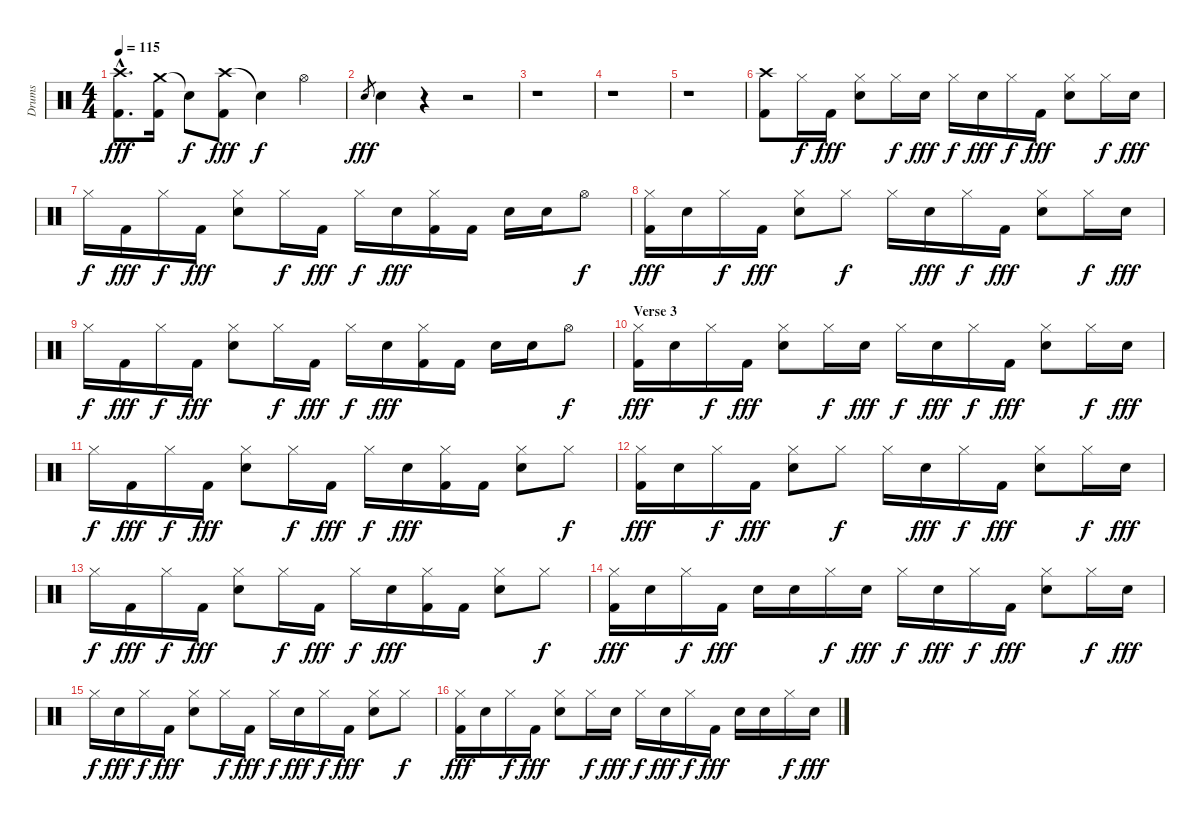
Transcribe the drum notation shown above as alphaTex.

\track ("Drums" "Drums") {instrument percussion}
\staff {score}
\articulation defaults
\ts (4 4)
\tempo 115
\clef neutral
\ks c
("Crash high (hit)"{hac} "Kick (hit) 2"{hac}).8{d dy fff} ("Crash medium (hit)" "Kick (hit) 2").16 "Snare (hit)"{t}.8{dy f} ("Crash high (hit)" "Kick (hit) 2").8{dy fff} "Snare (hit)"{t}.4{dy f} "Hi-Hat (open)".4 |
"Electric Snare (hit)".8{gr dy fff} "Electric Snare (hit)".4 r.4 r.2 |
r.1 |
r.1 |
r.1 |
("Crash high (hit)" "Kick (hit) 2").8 "Hi-Hat (closed)".16{dy f} "Kick (hit) 2".16{dy fff} ("Hi-Hat (closed)" "Electric Snare (hit)").8 "Hi-Hat (closed)".16{dy f} "Electric Snare (hit)".16{dy fff} "Hi-Hat (closed)".16{dy f} "Electric Snare (hit)".16{dy fff} "Hi-Hat (closed)".16{dy f} "Kick (hit) 2".16{dy fff} ("Hi-Hat (closed)" "Electric Snare (hit)").8 "Hi-Hat (closed)".16{dy f} "Electric Snare (hit)".16{dy fff} |
"Hi-Hat (closed)".16{dy f} "Kick (hit) 2".16{dy fff} "Hi-Hat (closed)".16{dy f} "Kick (hit) 2".16{dy fff} ("Hi-Hat (closed)" "Electric Snare (hit)").8 "Hi-Hat (closed)".16{dy f} "Kick (hit) 2".16{dy fff} "Hi-Hat (closed)".16{dy f} "Electric Snare (hit)".16{dy fff} ("Hi-Hat (closed)" "Kick (hit) 2").16 "Kick (hit) 2".16 "Electric Snare (hit)".16 "Electric Snare (hit)".16 "Hi-Hat (open)".8{dy f} |
("Hi-Hat (closed)" "Kick (hit) 2").16{dy fff} "Electric Snare (hit)".16 "Hi-Hat (closed)".16{dy f} "Kick (hit) 2".16{dy fff} ("Hi-Hat (closed)" "Electric Snare (hit)").8 "Hi-Hat (closed)".8{dy f} "Hi-Hat (closed)".16 "Electric Snare (hit)".16{dy fff} "Hi-Hat (closed)".16{dy f} "Kick (hit) 2".16{dy fff} ("Hi-Hat (closed)" "Electric Snare (hit)").8 "Hi-Hat (closed)".16{dy f} "Electric Snare (hit)".16{dy fff} |
"Hi-Hat (closed)".16{dy f} "Kick (hit) 2".16{dy fff} "Hi-Hat (closed)".16{dy f} "Kick (hit) 2".16{dy fff} ("Hi-Hat (closed)" "Electric Snare (hit)").8 "Hi-Hat (closed)".16{dy f} "Kick (hit) 2".16{dy fff} "Hi-Hat (closed)".16{dy f} "Electric Snare (hit)".16{dy fff} ("Hi-Hat (closed)" "Kick (hit) 2").16 "Kick (hit) 2".16 "Electric Snare (hit)".16 "Electric Snare (hit)".16 "Hi-Hat (open)".8{dy f} |
\section ("" "Verse 3")
("Hi-Hat (closed)" "Kick (hit) 2").16{dy fff} "Electric Snare (hit)".16 "Hi-Hat (closed)".16{dy f} "Kick (hit) 2".16{dy fff} ("Hi-Hat (closed)" "Electric Snare (hit)").8 "Hi-Hat (closed)".16{dy f} "Electric Snare (hit)".16{dy fff} "Hi-Hat (closed)".16{dy f} "Electric Snare (hit)".16{dy fff} "Hi-Hat (closed)".16{dy f} "Kick (hit) 2".16{dy fff} ("Hi-Hat (closed)" "Electric Snare (hit)").8 "Hi-Hat (closed)".16{dy f} "Electric Snare (hit)".16{dy fff} |
"Hi-Hat (closed)".16{dy f} "Kick (hit) 2".16{dy fff} "Hi-Hat (closed)".16{dy f} "Kick (hit) 2".16{dy fff} ("Hi-Hat (closed)" "Electric Snare (hit)").8 "Hi-Hat (closed)".16{dy f} "Kick (hit) 2".16{dy fff} "Hi-Hat (closed)".16{dy f} "Electric Snare (hit)".16{dy fff} ("Hi-Hat (closed)" "Kick (hit) 2").16 "Kick (hit) 2".16 ("Hi-Hat (closed)" "Electric Snare (hit)").8 "Hi-Hat (closed)".8{dy f} |
("Hi-Hat (closed)" "Kick (hit) 2").16{dy fff} "Electric Snare (hit)".16 "Hi-Hat (closed)".16{dy f} "Kick (hit) 2".16{dy fff} ("Hi-Hat (closed)" "Electric Snare (hit)").8 "Hi-Hat (closed)".8{dy f} "Hi-Hat (closed)".16 "Electric Snare (hit)".16{dy fff} "Hi-Hat (closed)".16{dy f} "Kick (hit) 2".16{dy fff} ("Hi-Hat (closed)" "Electric Snare (hit)").8 "Hi-Hat (closed)".16{dy f} "Electric Snare (hit)".16{dy fff} |
"Hi-Hat (closed)".16{dy f} "Kick (hit) 2".16{dy fff} "Hi-Hat (closed)".16{dy f} "Kick (hit) 2".16{dy fff} ("Hi-Hat (closed)" "Electric Snare (hit)").8 "Hi-Hat (closed)".16{dy f} "Kick (hit) 2".16{dy fff} "Hi-Hat (closed)".16{dy f} "Electric Snare (hit)".16{dy fff} ("Hi-Hat (closed)" "Kick (hit) 2").16 "Kick (hit) 2".16 ("Hi-Hat (closed)" "Electric Snare (hit)").8 "Hi-Hat (closed)".8{dy f} |
("Hi-Hat (closed)" "Kick (hit) 2").16{dy fff} "Electric Snare (hit)".16 "Hi-Hat (closed)".16{dy f} "Kick (hit) 2".16{dy fff} "Electric Snare (hit)".16 "Electric Snare (hit)".16 "Hi-Hat (closed)".16{dy f} "Electric Snare (hit)".16{dy fff} "Hi-Hat (closed)".16{dy f} "Electric Snare (hit)".16{dy fff} "Hi-Hat (closed)".16{dy f} "Kick (hit) 2".16{dy fff} ("Hi-Hat (closed)" "Electric Snare (hit)").8 "Hi-Hat (closed)".16{dy f} "Electric Snare (hit)".16{dy fff} |
"Hi-Hat (closed)".16{dy f} "Electric Snare (hit)".16{dy fff} "Hi-Hat (closed)".16{dy f} "Kick (hit) 2".16{dy fff} ("Hi-Hat (closed)" "Electric Snare (hit)").8 "Hi-Hat (closed)".16{dy f} "Kick (hit) 2".16{dy fff} "Hi-Hat (closed)".16{dy f} "Electric Snare (hit)".16{dy fff} "Hi-Hat (closed)".16{dy f} "Kick (hit) 2".16{dy fff} ("Hi-Hat (closed)" "Electric Snare (hit)").8 "Hi-Hat (closed)".8{dy f} |
("Hi-Hat (closed)" "Kick (hit) 2").16{dy fff} "Electric Snare (hit)".16 "Hi-Hat (closed)".16{dy f} "Kick (hit) 2".16{dy fff} ("Hi-Hat (closed)" "Electric Snare (hit)").8 "Hi-Hat (closed)".16{dy f} "Electric Snare (hit)".16{dy fff} "Hi-Hat (closed)".16{dy f} "Electric Snare (hit)".16{dy fff} "Hi-Hat (closed)".16{dy f} "Kick (hit) 2".16{dy fff} "Electric Snare (hit)".16 "Electric Snare (hit)".16 "Hi-Hat (closed)".16{dy f} "Electric Snare (hit)".16{dy fff}
